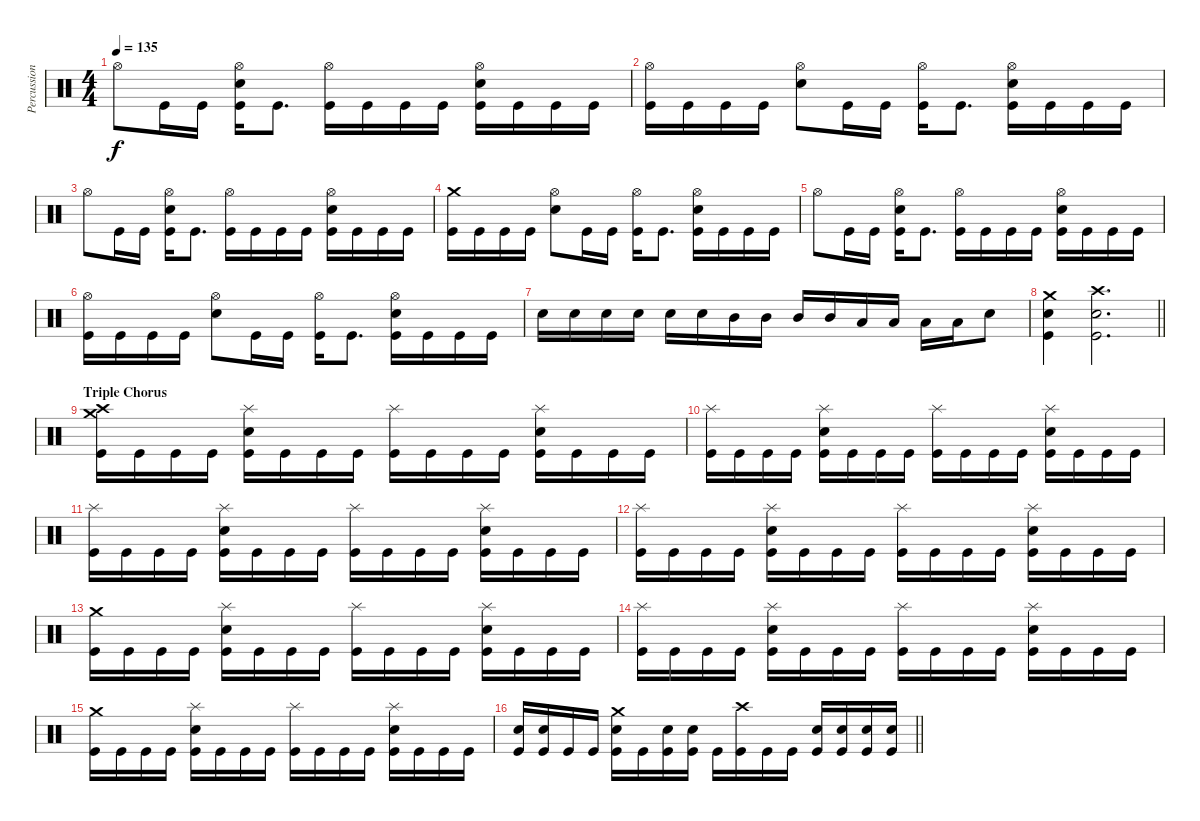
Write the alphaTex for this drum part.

\track ("Percussion" "Percussion") {instrument percussion}
\staff {score}
\articulation defaults
\ts (4 4)
\tempo 135
\clef neutral
\ks c "Hi-Hat (open)".8{dy f} "Kick (hit)".16 "Kick (hit)".16
("Hi-Hat (open)" "Electric Snare (hit)" "Kick (hit)").16 "Kick (hit)".8{d} ("Hi-Hat (open)" "Kick (hit)").16 "Kick (hit)".16 "Kick (hit)".16 "Kick (hit)".16 ("Hi-Hat (open)" "Electric Snare (hit)" "Kick (hit)").16 "Kick (hit)".16 "Kick (hit)".16 "Kick (hit)".16 |
("Hi-Hat (open)" "Kick (hit)").16 "Kick (hit)".16 "Kick (hit)".16 "Kick (hit)".16 ("Hi-Hat (open)" "Electric Snare (hit)").8 "Kick (hit)".16 "Kick (hit)".16 ("Hi-Hat (open)" "Kick (hit)").16 "Kick (hit)".8{d} ("Hi-Hat (open)" "Electric Snare (hit)" "Kick (hit)").16 "Kick (hit)".16 "Kick (hit)".16 "Kick (hit)".16 |
"Hi-Hat (open)".8 "Kick (hit)".16 "Kick (hit)".16 ("Hi-Hat (open)" "Electric Snare (hit)" "Kick (hit)").16 "Kick (hit)".8{d} ("Hi-Hat (open)" "Kick (hit)").16 "Kick (hit)".16 "Kick (hit)".16 "Kick (hit)".16 ("Hi-Hat (open)" "Electric Snare (hit)" "Kick (hit)").16 "Kick (hit)".16 "Kick (hit)".16 "Kick (hit)".16 |
("Crash medium (hit)" "Kick (hit)").16 "Kick (hit)".16 "Kick (hit)".16 "Kick (hit)".16 ("Hi-Hat (open)" "Electric Snare (hit)").8 "Kick (hit)".16 "Kick (hit)".16 ("Hi-Hat (open)" "Kick (hit)").16 "Kick (hit)".8{d} ("Hi-Hat (open)" "Electric Snare (hit)" "Kick (hit)").16 "Kick (hit)".16 "Kick (hit)".16 "Kick (hit)".16 |
"Hi-Hat (open)".8 "Kick (hit)".16 "Kick (hit)".16 ("Hi-Hat (open)" "Electric Snare (hit)" "Kick (hit)").16 "Kick (hit)".8{d} ("Hi-Hat (open)" "Kick (hit)").16 "Kick (hit)".16 "Kick (hit)".16 "Kick (hit)".16 ("Hi-Hat (open)" "Electric Snare (hit)" "Kick (hit)").16 "Kick (hit)".16 "Kick (hit)".16 "Kick (hit)".16 |
("Hi-Hat (open)" "Kick (hit)").16 "Kick (hit)".16 "Kick (hit)".16 "Kick (hit)".16 ("Hi-Hat (open)" "Electric Snare (hit)").8 "Kick (hit)".16 "Kick (hit)".16 ("Hi-Hat (open)" "Kick (hit)").16 "Kick (hit)".8{d} ("Hi-Hat (open)" "Electric Snare (hit)" "Kick (hit)").16 "Kick (hit)".16 "Kick (hit)".16 "Kick (hit)".16 |
"Electric Snare (hit)".16 "Electric Snare (hit)".16 "Electric Snare (hit)".16 "Electric Snare (hit)".16 "Electric Snare (hit)".16 "Electric Snare (hit)".16 "Mid Tom (hit)".16 "Mid Tom (hit)".16 "Mid Tom (hit)".16 "Mid Tom (hit)".16 "Low Tom (hit)".16 "Low Tom (hit)".16 "Low Tom (hit)".16 "Low Tom (hit)".16 "Electric Snare (hit)".8 |
\barLineRight lightlight
("Crash medium (hit)" "Electric Snare (hit)" "Kick (hit)").4 ("Crash high (hit)" "Electric Snare (hit)" "Kick (hit)").2{d} |
\section ("" "Triple Chorus")
("Crash medium (hit)" "Crash high (hit)" "Kick (hit)").16 "Kick (hit)".16 "Kick (hit)".16 "Kick (hit)".16 ("Splash (hit)" "Electric Snare (hit)" "Kick (hit)").16 "Kick (hit)".16 "Kick (hit)".16 "Kick (hit)".16 ("Splash (hit)" "Kick (hit)").16 "Kick (hit)".16 "Kick (hit)".16 "Kick (hit)".16 ("Splash (hit)" "Electric Snare (hit)" "Kick (hit)").16 "Kick (hit)".16 "Kick (hit)".16 "Kick (hit)".16 |
("Splash (hit)" "Kick (hit)").16 "Kick (hit)".16 "Kick (hit)".16 "Kick (hit)".16 ("Splash (hit)" "Electric Snare (hit)" "Kick (hit)").16 "Kick (hit)".16 "Kick (hit)".16 "Kick (hit)".16 ("Splash (hit)" "Kick (hit)").16 "Kick (hit)".16 "Kick (hit)".16 "Kick (hit)".16 ("Splash (hit)" "Electric Snare (hit)" "Kick (hit)").16 "Kick (hit)".16 "Kick (hit)".16 "Kick (hit)".16 |
("Splash (hit)" "Kick (hit)").16 "Kick (hit)".16 "Kick (hit)".16 "Kick (hit)".16 ("Splash (hit)" "Electric Snare (hit)" "Kick (hit)").16 "Kick (hit)".16 "Kick (hit)".16 "Kick (hit)".16 ("Splash (hit)" "Kick (hit)").16 "Kick (hit)".16 "Kick (hit)".16 "Kick (hit)".16 ("Splash (hit)" "Electric Snare (hit)" "Kick (hit)").16 "Kick (hit)".16 "Kick (hit)".16 "Kick (hit)".16 |
("Splash (hit)" "Kick (hit)").16 "Kick (hit)".16 "Kick (hit)".16 "Kick (hit)".16 ("Splash (hit)" "Electric Snare (hit)" "Kick (hit)").16 "Kick (hit)".16 "Kick (hit)".16 "Kick (hit)".16 ("Splash (hit)" "Kick (hit)").16 "Kick (hit)".16 "Kick (hit)".16 "Kick (hit)".16 ("Splash (hit)" "Electric Snare (hit)" "Kick (hit)").16 "Kick (hit)".16 "Kick (hit)".16 "Kick (hit)".16 |
("Crash medium (hit)" "Kick (hit)").16 "Kick (hit)".16 "Kick (hit)".16 "Kick (hit)".16 ("Splash (hit)" "Electric Snare (hit)" "Kick (hit)").16 "Kick (hit)".16 "Kick (hit)".16 "Kick (hit)".16 ("Splash (hit)" "Kick (hit)").16 "Kick (hit)".16 "Kick (hit)".16 "Kick (hit)".16 ("Splash (hit)" "Electric Snare (hit)" "Kick (hit)").16 "Kick (hit)".16 "Kick (hit)".16 "Kick (hit)".16 |
("Splash (hit)" "Kick (hit)").16 "Kick (hit)".16 "Kick (hit)".16 "Kick (hit)".16 ("Splash (hit)" "Electric Snare (hit)" "Kick (hit)").16 "Kick (hit)".16 "Kick (hit)".16 "Kick (hit)".16 ("Splash (hit)" "Kick (hit)").16 "Kick (hit)".16 "Kick (hit)".16 "Kick (hit)".16 ("Splash (hit)" "Electric Snare (hit)" "Kick (hit)").16 "Kick (hit)".16 "Kick (hit)".16 "Kick (hit)".16 |
("Crash medium (hit)" "Kick (hit)").16 "Kick (hit)".16 "Kick (hit)".16 "Kick (hit)".16 ("Splash (hit)" "Electric Snare (hit)" "Kick (hit)").16 "Kick (hit)".16 "Kick (hit)".16 "Kick (hit)".16 ("Splash (hit)" "Kick (hit)").16 "Kick (hit)".16 "Kick (hit)".16 "Kick (hit)".16 ("Splash (hit)" "Electric Snare (hit)" "Kick (hit)").16 "Kick (hit)".16 "Kick (hit)".16 "Kick (hit)".16 |
\barLineRight lightlight
("Electric Snare (hit)" "Kick (hit)").16 ("Electric Snare (hit)" "Kick (hit)").16 "Kick (hit)".16 "Kick (hit)".16 ("Crash medium (hit)" "Electric Snare (hit)" "Kick (hit)").16 "Kick (hit)".16 ("Electric Snare (hit)" "Kick (hit)").16 ("Electric Snare (hit)" "Kick (hit)").16 "Kick (hit)".16 ("Crash high (hit)" "Kick (hit)").16 "Kick (hit)".16 "Kick (hit)".16 ("Electric Snare (hit)" "Kick (hit)").16 ("Electric Snare (hit)" "Kick (hit)").16 ("Electric Snare (hit)" "Kick (hit)").16 ("Electric Snare (hit)" "Kick (hit)").16
